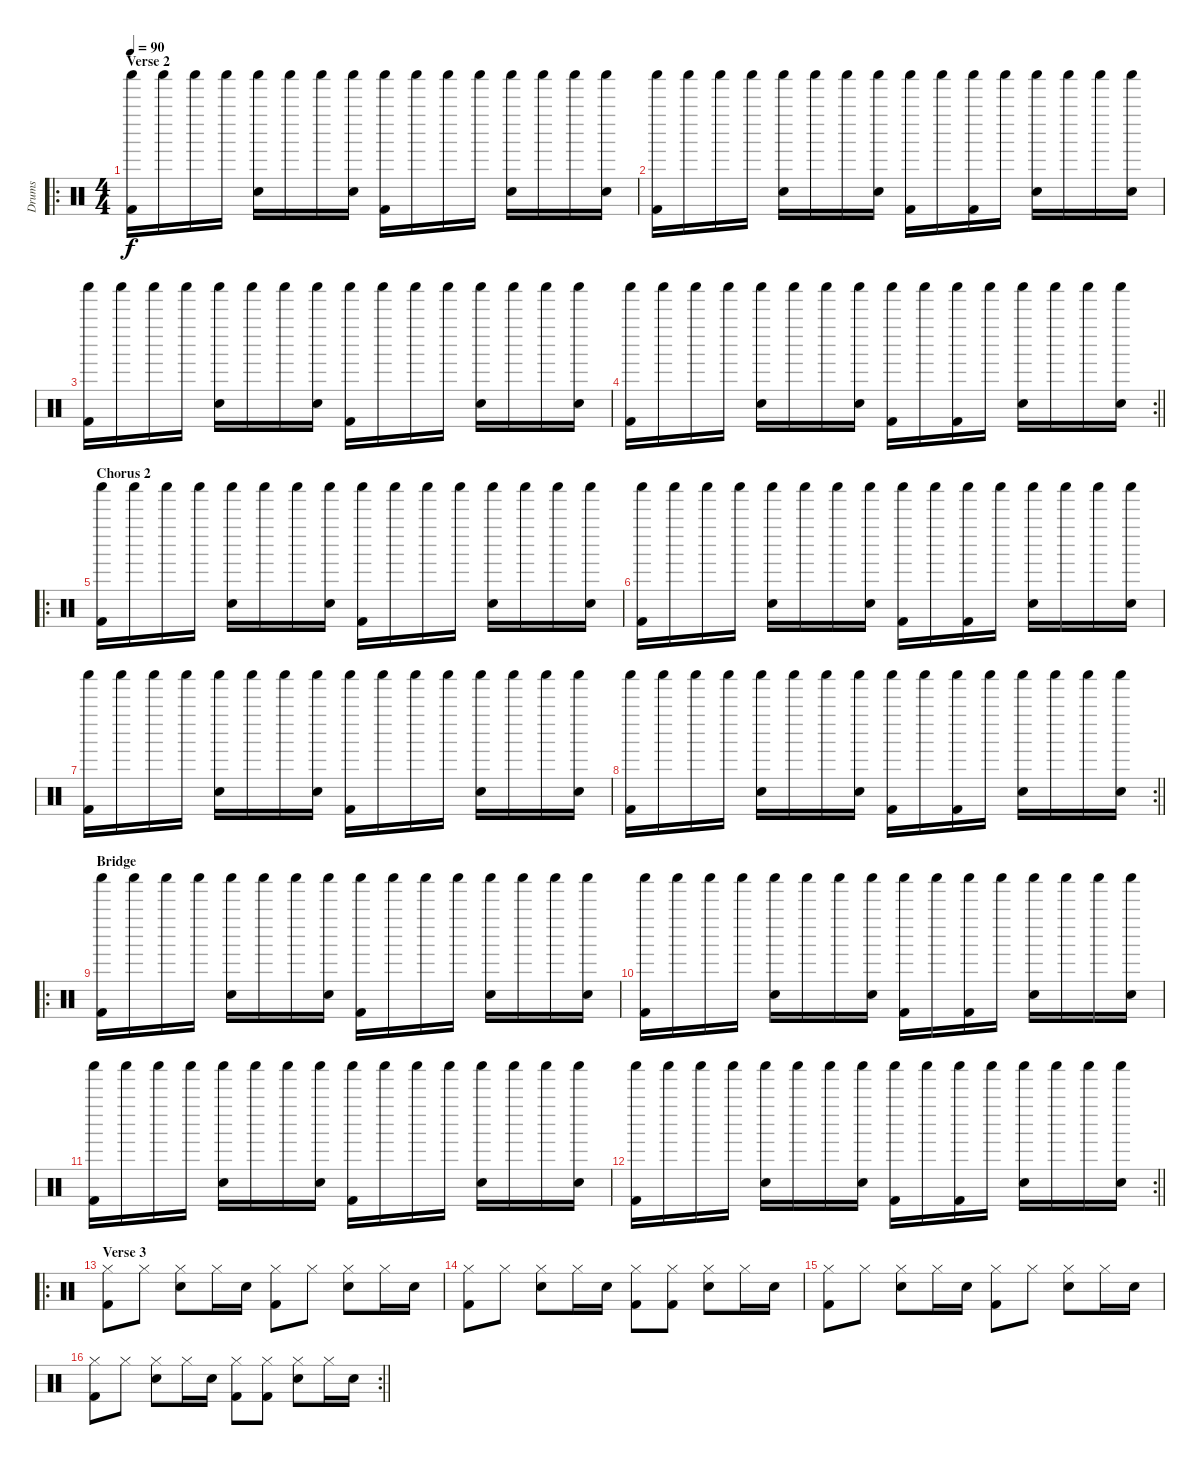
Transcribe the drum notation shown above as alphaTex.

\track ("Drums" "Drums") {instrument percussion}
\staff
\articulation defaults
\ro
\ts (4 4)
\section ("" "Verse 2")
\tempo 90
\clef neutral
\ks c
("Shaker (hit)" "Kick (hit) 2").16{dy f} "Shaker (hit)".16 "Shaker (hit)".16 "Shaker (hit)".16 ("Shaker (hit)" "Electric Snare (hit)").16 "Shaker (hit)".16 "Shaker (hit)".16 ("Shaker (hit)" "Electric Snare (hit)").16 ("Shaker (hit)" "Kick (hit) 2").16 "Shaker (hit)".16 "Shaker (hit)".16 "Shaker (hit)".16 ("Shaker (hit)" "Electric Snare (hit)").16 "Shaker (hit)".16 "Shaker (hit)".16 ("Shaker (hit)" "Electric Snare (hit)").16 |
("Shaker (hit)" "Kick (hit) 2").16 "Shaker (hit)".16 "Shaker (hit)".16 "Shaker (hit)".16 ("Shaker (hit)" "Electric Snare (hit)").16 "Shaker (hit)".16 "Shaker (hit)".16 ("Shaker (hit)" "Electric Snare (hit)").16 ("Shaker (hit)" "Kick (hit) 2").16 "Shaker (hit)".16 ("Shaker (hit)" "Kick (hit) 2").16 "Shaker (hit)".16 ("Shaker (hit)" "Electric Snare (hit)").16 "Shaker (hit)".16 "Shaker (hit)".16 ("Shaker (hit)" "Electric Snare (hit)").16 |
("Shaker (hit)" "Kick (hit) 2").16 "Shaker (hit)".16 "Shaker (hit)".16 "Shaker (hit)".16 ("Shaker (hit)" "Electric Snare (hit)").16 "Shaker (hit)".16 "Shaker (hit)".16 ("Shaker (hit)" "Electric Snare (hit)").16 ("Shaker (hit)" "Kick (hit) 2").16 "Shaker (hit)".16 "Shaker (hit)".16 "Shaker (hit)".16 ("Shaker (hit)" "Electric Snare (hit)").16 "Shaker (hit)".16 "Shaker (hit)".16 ("Shaker (hit)" "Electric Snare (hit)").16 |
\rc 2
\barLineRight lightlight
("Shaker (hit)" "Kick (hit) 2").16 "Shaker (hit)".16 "Shaker (hit)".16 "Shaker (hit)".16 ("Shaker (hit)" "Electric Snare (hit)").16 "Shaker (hit)".16 "Shaker (hit)".16 ("Shaker (hit)" "Electric Snare (hit)").16 ("Shaker (hit)" "Kick (hit) 2").16 "Shaker (hit)".16 ("Shaker (hit)" "Kick (hit) 2").16 "Shaker (hit)".16 ("Shaker (hit)" "Electric Snare (hit)").16 "Shaker (hit)".16 "Shaker (hit)".16 ("Shaker (hit)" "Electric Snare (hit)").16 |
\ro
\section ("" "Chorus 2")
("Shaker (hit)" "Kick (hit) 2").16 "Shaker (hit)".16 "Shaker (hit)".16 "Shaker (hit)".16 ("Shaker (hit)" "Electric Snare (hit)").16 "Shaker (hit)".16 "Shaker (hit)".16 ("Shaker (hit)" "Electric Snare (hit)").16 ("Shaker (hit)" "Kick (hit) 2").16 "Shaker (hit)".16 "Shaker (hit)".16 "Shaker (hit)".16 ("Shaker (hit)" "Electric Snare (hit)").16 "Shaker (hit)".16 "Shaker (hit)".16 ("Shaker (hit)" "Electric Snare (hit)").16 |
("Shaker (hit)" "Kick (hit) 2").16 "Shaker (hit)".16 "Shaker (hit)".16 "Shaker (hit)".16 ("Shaker (hit)" "Electric Snare (hit)").16 "Shaker (hit)".16 "Shaker (hit)".16 ("Shaker (hit)" "Electric Snare (hit)").16 ("Shaker (hit)" "Kick (hit) 2").16 "Shaker (hit)".16 ("Shaker (hit)" "Kick (hit) 2").16 "Shaker (hit)".16 ("Shaker (hit)" "Electric Snare (hit)").16 "Shaker (hit)".16 "Shaker (hit)".16 ("Shaker (hit)" "Electric Snare (hit)").16 |
("Shaker (hit)" "Kick (hit) 2").16 "Shaker (hit)".16 "Shaker (hit)".16 "Shaker (hit)".16 ("Shaker (hit)" "Electric Snare (hit)").16 "Shaker (hit)".16 "Shaker (hit)".16 ("Shaker (hit)" "Electric Snare (hit)").16 ("Shaker (hit)" "Kick (hit) 2").16 "Shaker (hit)".16 "Shaker (hit)".16 "Shaker (hit)".16 ("Shaker (hit)" "Electric Snare (hit)").16 "Shaker (hit)".16 "Shaker (hit)".16 ("Shaker (hit)" "Electric Snare (hit)").16 |
\rc 2
\barLineRight lightlight
("Shaker (hit)" "Kick (hit) 2").16 "Shaker (hit)".16 "Shaker (hit)".16 "Shaker (hit)".16 ("Shaker (hit)" "Electric Snare (hit)").16 "Shaker (hit)".16 "Shaker (hit)".16 ("Shaker (hit)" "Electric Snare (hit)").16 ("Shaker (hit)" "Kick (hit) 2").16 "Shaker (hit)".16 ("Shaker (hit)" "Kick (hit) 2").16 "Shaker (hit)".16 ("Shaker (hit)" "Electric Snare (hit)").16 "Shaker (hit)".16 "Shaker (hit)".16 ("Shaker (hit)" "Electric Snare (hit)").16 |
\ro
\section ("" "Bridge")
("Shaker (hit)" "Kick (hit) 2").16 "Shaker (hit)".16 "Shaker (hit)".16 "Shaker (hit)".16 ("Shaker (hit)" "Electric Snare (hit)").16 "Shaker (hit)".16 "Shaker (hit)".16 ("Shaker (hit)" "Electric Snare (hit)").16 ("Shaker (hit)" "Kick (hit) 2").16 "Shaker (hit)".16 "Shaker (hit)".16 "Shaker (hit)".16 ("Shaker (hit)" "Electric Snare (hit)").16 "Shaker (hit)".16 "Shaker (hit)".16 ("Shaker (hit)" "Electric Snare (hit)").16 |
("Shaker (hit)" "Kick (hit) 2").16 "Shaker (hit)".16 "Shaker (hit)".16 "Shaker (hit)".16 ("Shaker (hit)" "Electric Snare (hit)").16 "Shaker (hit)".16 "Shaker (hit)".16 ("Shaker (hit)" "Electric Snare (hit)").16 ("Shaker (hit)" "Kick (hit) 2").16 "Shaker (hit)".16 ("Shaker (hit)" "Kick (hit) 2").16 "Shaker (hit)".16 ("Shaker (hit)" "Electric Snare (hit)").16 "Shaker (hit)".16 "Shaker (hit)".16 ("Shaker (hit)" "Electric Snare (hit)").16 |
("Shaker (hit)" "Kick (hit) 2").16 "Shaker (hit)".16 "Shaker (hit)".16 "Shaker (hit)".16 ("Shaker (hit)" "Electric Snare (hit)").16 "Shaker (hit)".16 "Shaker (hit)".16 ("Shaker (hit)" "Electric Snare (hit)").16 ("Shaker (hit)" "Kick (hit) 2").16 "Shaker (hit)".16 "Shaker (hit)".16 "Shaker (hit)".16 ("Shaker (hit)" "Electric Snare (hit)").16 "Shaker (hit)".16 "Shaker (hit)".16 ("Shaker (hit)" "Electric Snare (hit)").16 |
\rc 2
\barLineRight lightlight
("Shaker (hit)" "Kick (hit) 2").16 "Shaker (hit)".16 "Shaker (hit)".16 "Shaker (hit)".16 ("Shaker (hit)" "Electric Snare (hit)").16 "Shaker (hit)".16 "Shaker (hit)".16 ("Shaker (hit)" "Electric Snare (hit)").16 ("Shaker (hit)" "Kick (hit) 2").16 "Shaker (hit)".16 ("Shaker (hit)" "Kick (hit) 2").16 "Shaker (hit)".16 ("Shaker (hit)" "Electric Snare (hit)").16 "Shaker (hit)".16 "Shaker (hit)".16 ("Shaker (hit)" "Electric Snare (hit)").16 |
\ro
\section ("" "Verse 3")
("Hi-Hat (closed)" "Kick (hit) 2").8 "Hi-Hat (closed)".8 ("Hi-Hat (closed)" "Electric Snare (hit)").8 "Hi-Hat (closed)".16 "Electric Snare (hit)".16 ("Hi-Hat (closed)" "Kick (hit) 2").8 "Hi-Hat (closed)".8 ("Hi-Hat (closed)" "Electric Snare (hit)").8 "Hi-Hat (closed)".16 "Electric Snare (hit)".16 |
("Hi-Hat (closed)" "Kick (hit) 2").8 "Hi-Hat (closed)".8 ("Hi-Hat (closed)" "Electric Snare (hit)").8 "Hi-Hat (closed)".16 "Electric Snare (hit)".16 ("Hi-Hat (closed)" "Kick (hit) 2").8 ("Hi-Hat (closed)" "Kick (hit) 2").8 ("Hi-Hat (closed)" "Electric Snare (hit)").8 "Hi-Hat (closed)".16 "Electric Snare (hit)".16 |
("Hi-Hat (closed)" "Kick (hit) 2").8 "Hi-Hat (closed)".8 ("Hi-Hat (closed)" "Electric Snare (hit)").8 "Hi-Hat (closed)".16 "Electric Snare (hit)".16 ("Hi-Hat (closed)" "Kick (hit) 2").8 "Hi-Hat (closed)".8 ("Hi-Hat (closed)" "Electric Snare (hit)").8 "Hi-Hat (closed)".16 "Electric Snare (hit)".16 |
\rc 2
\barLineRight lightlight
("Hi-Hat (closed)" "Kick (hit) 2").8 "Hi-Hat (closed)".8 ("Hi-Hat (closed)" "Electric Snare (hit)").8 "Hi-Hat (closed)".16 "Electric Snare (hit)".16 ("Hi-Hat (closed)" "Kick (hit) 2").8 ("Hi-Hat (closed)" "Kick (hit) 2").8 ("Hi-Hat (closed)" "Electric Snare (hit)").8 "Hi-Hat (closed)".16 "Electric Snare (hit)".16
